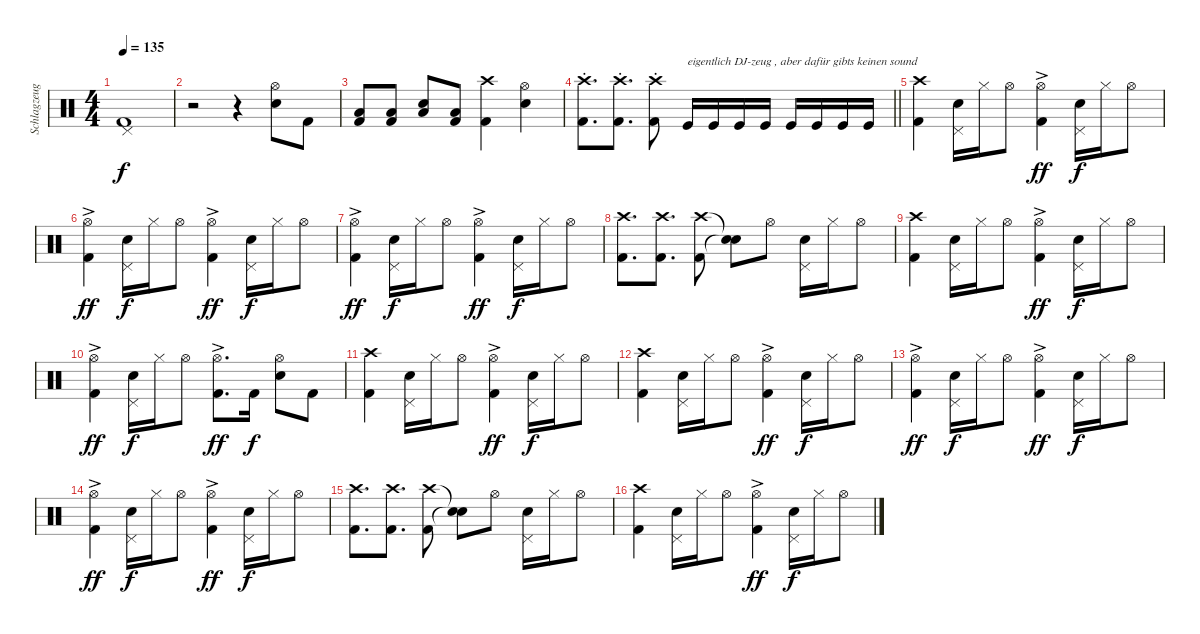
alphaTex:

\track ("Schlagzeug" "Schlagzeug") {instrument percussion}
\staff {score}
\articulation defaults
\ts (4 4)
\tempo 135
\clef neutral
\ks c
("Pedal Hi-Hat (hit)" "Kick (hit) 2").1{dy f} |
r.2 r.4 ("Hi-Hat (open)" "Electric Snare (hit)").8 "Kick (hit) 2".8 |
("Low Floor Tom (hit)" "Kick (hit) 2").8 ("Low Floor Tom (hit)" "Kick (hit) 2").8 ("Low Floor Tom (hit)" "Electric Snare (hit)").8 ("Low Floor Tom (hit)" "Kick (hit) 2").8 ("Crash high (hit)" "Kick (hit) 2").4 ("Hi-Hat (open)" "Electric Snare (hit)").4 |
\barLineRight lightlight
("Crash high (hit)" "Kick (hit) 2"{st}).8{d} ("Crash high (hit)" "Kick (hit) 2"{st}).8{d} ("Crash high (hit)" "Kick (hit) 2"{st}).8 "Kick (hit)".16{txt "eigentlich DJ-zeug , aber dafür gibts keinen sound"} "Kick (hit)".16 "Kick (hit)".16 "Kick (hit)".16 "Kick (hit)".16 "Kick (hit)".16 "Kick (hit)".16 "Kick (hit)".16 |
("Crash high (hit)" "Kick (hit) 2").4 ("Electric Snare (hit)" "Pedal Hi-Hat (hit)").16 "Hi-Hat (closed)".16 "Hi-Hat (open)".8 ("Hi-Hat (open)"{ac} "Kick (hit) 2").4{dy ff} ("Electric Snare (hit)" "Pedal Hi-Hat (hit)").16{dy f} "Hi-Hat (closed)".16 "Hi-Hat (open)".8 |
("Hi-Hat (open)"{ac} "Kick (hit) 2").4{dy ff} ("Electric Snare (hit)" "Pedal Hi-Hat (hit)").16{dy f} "Hi-Hat (closed)".16 "Hi-Hat (open)".8 ("Hi-Hat (open)"{ac} "Kick (hit) 2").4{dy ff} ("Electric Snare (hit)" "Pedal Hi-Hat (hit)").16{dy f} "Hi-Hat (closed)".16 "Hi-Hat (open)".8 |
("Hi-Hat (open)"{ac} "Kick (hit) 2").4{dy ff} ("Electric Snare (hit)" "Pedal Hi-Hat (hit)").16{dy f} "Hi-Hat (closed)".16 "Hi-Hat (open)".8 ("Hi-Hat (open)"{ac} "Kick (hit) 2").4{dy ff} ("Electric Snare (hit)" "Pedal Hi-Hat (hit)").16{dy f} "Hi-Hat (closed)".16 "Hi-Hat (open)".8 |
("Crash high (hit)" "Kick (hit) 2").8{d} ("Crash high (hit)" "Kick (hit) 2").8{d} ("Crash high (hit)" "Kick (hit) 2").8 ("Snare (hit)"{t} "Snare (hit)"{t}).8 "Hi-Hat (open)".8 ("Electric Snare (hit)" "Pedal Hi-Hat (hit)").16 "Hi-Hat (closed)".16 "Hi-Hat (open)".8 |
("Crash high (hit)" "Kick (hit) 2").4 ("Electric Snare (hit)" "Pedal Hi-Hat (hit)").16 "Hi-Hat (closed)".16 "Hi-Hat (open)".8 ("Hi-Hat (open)"{ac} "Kick (hit) 2").4{dy ff} ("Electric Snare (hit)" "Pedal Hi-Hat (hit)").16{dy f} "Hi-Hat (closed)".16 "Hi-Hat (open)".8 |
("Hi-Hat (open)"{ac} "Kick (hit) 2").4{dy ff} ("Electric Snare (hit)" "Pedal Hi-Hat (hit)").16{dy f} "Hi-Hat (closed)".16 "Hi-Hat (open)".8 ("Hi-Hat (open)"{ac} "Kick (hit) 2").8{d dy ff} "Kick (hit) 2".16{dy f} ("Hi-Hat (open)" "Electric Snare (hit)").8 "Kick (hit) 2".8 |
("Crash high (hit)" "Kick (hit) 2").4 ("Electric Snare (hit)" "Pedal Hi-Hat (hit)").16 "Hi-Hat (closed)".16 "Hi-Hat (open)".8 ("Hi-Hat (open)"{ac} "Kick (hit) 2").4{dy ff} ("Electric Snare (hit)" "Pedal Hi-Hat (hit)").16{dy f} "Hi-Hat (closed)".16 "Hi-Hat (open)".8 |
("Crash high (hit)" "Kick (hit) 2").4 ("Electric Snare (hit)" "Pedal Hi-Hat (hit)").16 "Hi-Hat (closed)".16 "Hi-Hat (open)".8 ("Hi-Hat (open)"{ac} "Kick (hit) 2").4{dy ff} ("Electric Snare (hit)" "Pedal Hi-Hat (hit)").16{dy f} "Hi-Hat (closed)".16 "Hi-Hat (open)".8 |
("Hi-Hat (open)"{ac} "Kick (hit) 2").4{dy ff} ("Electric Snare (hit)" "Pedal Hi-Hat (hit)").16{dy f} "Hi-Hat (closed)".16 "Hi-Hat (open)".8 ("Hi-Hat (open)"{ac} "Kick (hit) 2").4{dy ff} ("Electric Snare (hit)" "Pedal Hi-Hat (hit)").16{dy f} "Hi-Hat (closed)".16 "Hi-Hat (open)".8 |
("Hi-Hat (open)"{ac} "Kick (hit) 2").4{dy ff} ("Electric Snare (hit)" "Pedal Hi-Hat (hit)").16{dy f} "Hi-Hat (closed)".16 "Hi-Hat (open)".8 ("Hi-Hat (open)"{ac} "Kick (hit) 2").4{dy ff} ("Electric Snare (hit)" "Pedal Hi-Hat (hit)").16{dy f} "Hi-Hat (closed)".16 "Hi-Hat (open)".8 |
("Crash high (hit)" "Kick (hit) 2").8{d} ("Crash high (hit)" "Kick (hit) 2").8{d} ("Crash high (hit)" "Kick (hit) 2").8 ("Snare (hit)"{t} "Snare (hit)"{t}).8 "Hi-Hat (open)".8 ("Electric Snare (hit)" "Pedal Hi-Hat (hit)").16 "Hi-Hat (closed)".16 "Hi-Hat (open)".8 |
("Crash high (hit)" "Kick (hit) 2").4 ("Electric Snare (hit)" "Pedal Hi-Hat (hit)").16 "Hi-Hat (closed)".16 "Hi-Hat (open)".8 ("Hi-Hat (open)"{ac} "Kick (hit) 2").4{dy ff} ("Electric Snare (hit)" "Pedal Hi-Hat (hit)").16{dy f} "Hi-Hat (closed)".16 "Hi-Hat (open)".8
